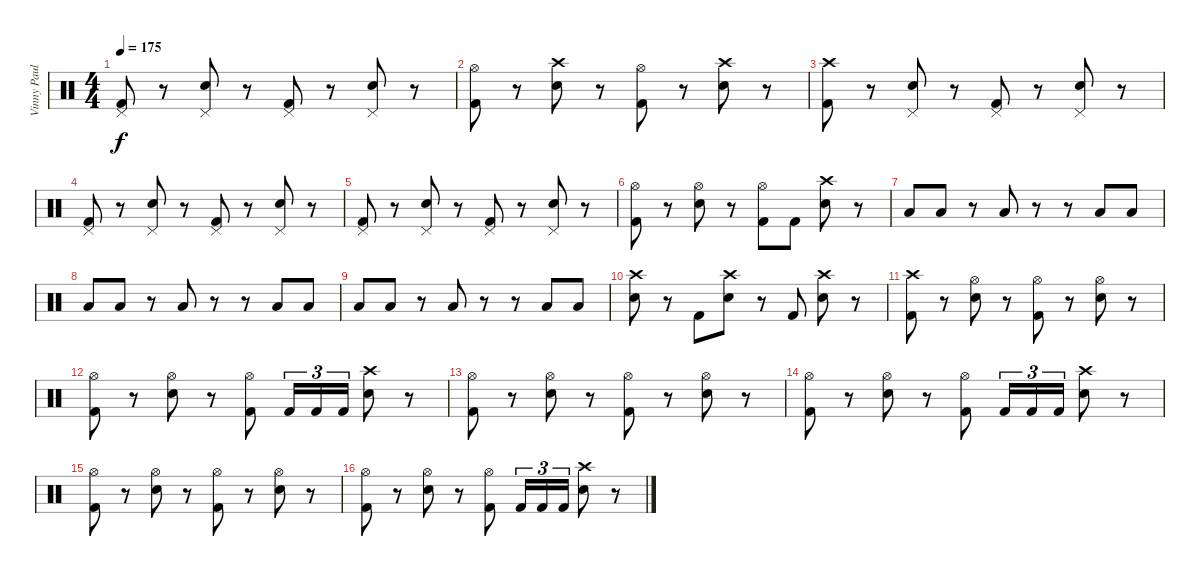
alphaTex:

\track ("Vinny Paul" "Vinny Paul") {instrument percussion}
\staff {score}
\articulation defaults
\ts (4 4)
\tempo 175
\clef neutral
\ks c
("Pedal Hi-Hat (hit)" "Kick (hit) 2").8{dy f} r.8 ("Pedal Hi-Hat (hit)" "Snare (hit) 2").8 r.8 ("Pedal Hi-Hat (hit)" "Kick (hit) 2").8 r.8 ("Pedal Hi-Hat (hit)" "Snare (hit) 2").8 r.8 |
("Hi-Hat (open)" "Kick (hit) 2").8 r.8 ("Crash high (hit)" "Snare (hit) 2").8 r.8 ("Hi-Hat (open)" "Kick (hit) 2").8 r.8 ("Crash high (hit)" "Snare (hit) 2").8 r.8 |
("Crash high (hit)" "Kick (hit) 2").8 r.8 ("Pedal Hi-Hat (hit)" "Snare (hit) 2").8 r.8 ("Pedal Hi-Hat (hit)" "Kick (hit) 2").8 r.8 ("Pedal Hi-Hat (hit)" "Snare (hit) 2").8 r.8 |
("Pedal Hi-Hat (hit)" "Kick (hit) 2").8 r.8 ("Pedal Hi-Hat (hit)" "Snare (hit) 2").8 r.8 ("Pedal Hi-Hat (hit)" "Kick (hit) 2").8 r.8 ("Pedal Hi-Hat (hit)" "Snare (hit) 2").8 r.8 |
("Pedal Hi-Hat (hit)" "Kick (hit) 2").8 r.8 ("Pedal Hi-Hat (hit)" "Snare (hit) 2").8 r.8 ("Pedal Hi-Hat (hit)" "Kick (hit) 2").8 r.8 ("Pedal Hi-Hat (hit)" "Snare (hit) 2").8 r.8 |
("Hi-Hat (open)" "Kick (hit) 2").8 r.8 ("Hi-Hat (open)" "Snare (hit) 2").8 r.8 ("Hi-Hat (open)" "Kick (hit) 2").8 "Kick (hit) 2".8 ("Crash high (hit)" "Snare (hit) 2").8 r.8 |
"Low Tom (hit)".8 "Low Tom (hit)".8 r.8 "Low Tom (hit)".8 r.8 r.8 "Low Tom (hit)".8 "Low Tom (hit)".8 |
"Low Tom (hit)".8 "Low Tom (hit)".8 r.8 "Low Tom (hit)".8 r.8 r.8 "Low Tom (hit)".8 "Low Tom (hit)".8 |
"Low Tom (hit)".8 "Low Tom (hit)".8 r.8 "Low Tom (hit)".8 r.8 r.8 "Low Tom (hit)".8 "Low Tom (hit)".8 |
("Crash high (hit)" "Snare (hit) 2").8 r.8 "Kick (hit) 2".8 ("Crash high (hit)" "Snare (hit) 2").8 r.8 "Kick (hit) 2".8 ("Crash high (hit)" "Snare (hit) 2").8 r.8 |
("Crash high (hit)" "Kick (hit) 2").8 r.8 ("Hi-Hat (open)" "Snare (hit) 2").8 r.8 ("Hi-Hat (open)" "Kick (hit) 2").8 r.8 ("Hi-Hat (open)" "Snare (hit) 2").8 r.8 |
("Hi-Hat (open)" "Kick (hit) 2").8 r.8 ("Hi-Hat (open)" "Snare (hit) 2").8 r.8 ("Hi-Hat (open)" "Kick (hit) 2").8 "Kick (hit) 2".16{tu (3 2)} "Kick (hit) 2".16{tu (3 2)} "Kick (hit) 2".16{tu (3 2)} ("Crash high (hit)" "Snare (hit) 2").8 r.8 |
("Hi-Hat (open)" "Kick (hit) 2").8 r.8 ("Hi-Hat (open)" "Snare (hit) 2").8 r.8 ("Hi-Hat (open)" "Kick (hit) 2").8 r.8 ("Hi-Hat (open)" "Snare (hit) 2").8 r.8 |
("Hi-Hat (open)" "Kick (hit) 2").8 r.8 ("Hi-Hat (open)" "Snare (hit) 2").8 r.8 ("Hi-Hat (open)" "Kick (hit) 2").8 "Kick (hit) 2".16{tu (3 2)} "Kick (hit) 2".16{tu (3 2)} "Kick (hit) 2".16{tu (3 2)} ("Crash high (hit)" "Snare (hit) 2").8 r.8 |
("Hi-Hat (open)" "Kick (hit) 2").8 r.8 ("Hi-Hat (open)" "Snare (hit) 2").8 r.8 ("Hi-Hat (open)" "Kick (hit) 2").8 r.8 ("Hi-Hat (open)" "Snare (hit) 2").8 r.8 |
("Hi-Hat (open)" "Kick (hit) 2").8 r.8 ("Hi-Hat (open)" "Snare (hit) 2").8 r.8 ("Hi-Hat (open)" "Kick (hit) 2").8 "Kick (hit) 2".16{tu (3 2)} "Kick (hit) 2".16{tu (3 2)} "Kick (hit) 2".16{tu (3 2)} ("Crash high (hit)" "Snare (hit) 2").8 r.8
